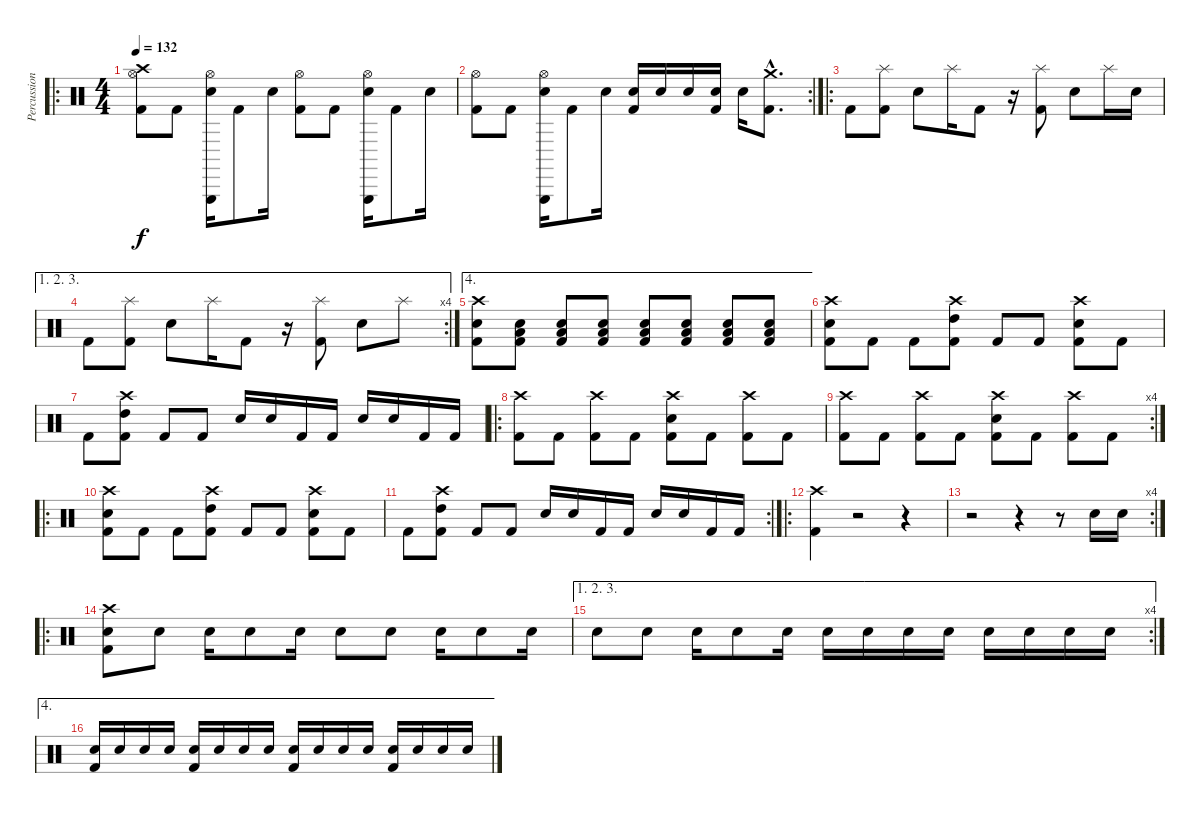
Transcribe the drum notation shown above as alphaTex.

\track ("Percussion" "Percussion") {instrument percussion}
\staff {score}
\articulation defaults
\ro
\ts (4 4)
\tempo 132
\clef neutral
\ks c
("Crash high (hit)" "Hi-Hat (open)" "Kick (hit) 2").8{dy f} "Kick (hit) 2".8 ("Triangle (hit)" "Electric Snare (hit)" "Hi-Hat (open)").16 "Kick (hit) 2".8 "Electric Snare (hit)".16 ("Hi-Hat (open)" "Kick (hit) 2").8 "Kick (hit) 2".8 ("Triangle (hit)" "Electric Snare (hit)" "Hi-Hat (open)").16 "Kick (hit) 2".8 "Electric Snare (hit)".16 |
\rc 2
("Hi-Hat (open)" "Kick (hit) 2").8 "Kick (hit) 2".8 ("Triangle (hit)" "Electric Snare (hit)" "Hi-Hat (open)").16 "Kick (hit) 2".8 "Electric Snare (hit)".16 ("Electric Snare (hit)" "Kick (hit) 2").16 "Electric Snare (hit)".16 "Electric Snare (hit)".16 ("Electric Snare (hit)" "Kick (hit) 2").16 "Electric Snare (hit)".16 ("Crash medium (hit)"{hac} "Kick (hit) 2"{hac}).8{d} |
\ro "Kick (hit) 2".8
("Splash (hit)" "Kick (hit) 2").8 "Electric Snare (hit)".8 "Splash (hit)".16 "Kick (hit) 2".8 r.16 ("Splash (hit)" "Kick (hit) 2").8 "Electric Snare (hit)".8 "Splash (hit)".16 "Electric Snare (hit)".16 |
\ae (1 2 3)
\rc 4 "Kick (hit) 2".8
("Splash (hit)" "Kick (hit) 2").8 "Electric Snare (hit)".8 "Splash (hit)".16 "Kick (hit) 2".8 r.16 ("Splash (hit)" "Kick (hit) 2").8 "Electric Snare (hit)".8 "Splash (hit)".8 |
\ae 4
("Crash high (hit)" "Electric Snare (hit)" "Kick (hit) 2").8 ("Electric Snare (hit)" "Low Floor Tom (hit)" "Kick (hit) 2").8 ("Electric Snare (hit)" "Low Floor Tom (hit)" "Kick (hit) 2").8 ("Electric Snare (hit)" "Low Floor Tom (hit)" "Kick (hit) 2").8 ("Electric Snare (hit)" "Low Floor Tom (hit)" "Kick (hit) 2").8 ("Electric Snare (hit)" "Low Floor Tom (hit)" "Kick (hit) 2").8 ("Electric Snare (hit)" "Low Floor Tom (hit)" "Kick (hit) 2").8 ("Electric Snare (hit)" "Low Floor Tom (hit)" "Kick (hit) 2").8 |
("Crash high (hit)" "Electric Snare (hit)" "Kick (hit) 2").8 "Kick (hit) 2".8 "Kick (hit) 2".8 ("Crash high (hit)" "High Tom (hit)" "Kick (hit) 2").8 "Kick (hit) 2".8 "Kick (hit) 2".8 ("Crash high (hit)" "Electric Snare (hit)" "Kick (hit) 2").8 "Kick (hit) 2".8 |
"Kick (hit) 2".8 ("Crash high (hit)" "High Tom (hit)" "Kick (hit) 2").8 "Kick (hit) 2".8 "Kick (hit) 2".8 "Electric Snare (hit)".16 "Electric Snare (hit)".16 "Kick (hit) 2".16 "Kick (hit) 2".16 "Electric Snare (hit)".16 "Electric Snare (hit)".16 "Kick (hit) 2".16 "Kick (hit) 2".16 |
\ro
("Crash high (hit)" "Kick (hit) 2").8 "Kick (hit) 2".8 ("Crash high (hit)" "Kick (hit) 2").8 "Kick (hit) 2".8 ("Crash high (hit)" "Electric Snare (hit)" "Kick (hit) 2").8 "Kick (hit) 2".8 ("Crash high (hit)" "Kick (hit) 2").8 "Kick (hit) 2".8 |
\rc 4
("Crash high (hit)" "Kick (hit) 2").8 "Kick (hit) 2".8 ("Crash high (hit)" "Kick (hit) 2").8 "Kick (hit) 2".8 ("Crash high (hit)" "Electric Snare (hit)" "Kick (hit) 2").8 "Kick (hit) 2".8 ("Crash high (hit)" "Kick (hit) 2").8 "Kick (hit) 2".8 |
\ro
("Crash high (hit)" "Electric Snare (hit)" "Kick (hit) 2").8 "Kick (hit) 2".8 "Kick (hit) 2".8 ("Crash high (hit)" "High Tom (hit)" "Kick (hit) 2").8 "Kick (hit) 2".8 "Kick (hit) 2".8 ("Crash high (hit)" "Electric Snare (hit)" "Kick (hit) 2").8 "Kick (hit) 2".8 |
\rc 2 "Kick (hit) 2".8
("Crash high (hit)" "High Tom (hit)" "Kick (hit) 2").8 "Kick (hit) 2".8 "Kick (hit) 2".8 "Electric Snare (hit)".16 "Electric Snare (hit)".16 "Kick (hit) 2".16 "Kick (hit) 2".16 "Electric Snare (hit)".16 "Electric Snare (hit)".16 "Kick (hit) 2".16 "Kick (hit) 2".16 |
\ro
("Crash high (hit)" "Kick (hit) 2").4 r.2 r.4 |
\rc 4
r.2 r.4 r.8 "Electric Snare (hit)".16 "Electric Snare (hit)".16 |
\ro
("Crash high (hit)" "Electric Snare (hit)" "Kick (hit) 2").8 "Electric Snare (hit)".8 "Electric Snare (hit)".16 "Electric Snare (hit)".8 "Electric Snare (hit)".16 "Electric Snare (hit)".8 "Electric Snare (hit)".8 "Electric Snare (hit)".16 "Electric Snare (hit)".8 "Electric Snare (hit)".16 |
\ae (1 2 3)
\rc 4 "Electric Snare (hit)".8 "Electric Snare (hit)".8 "Electric Snare (hit)".16 "Electric Snare (hit)".8 "Electric Snare (hit)".16 "Electric Snare (hit)".16 "Electric Snare (hit)".16 "Electric Snare (hit)".16 "Electric Snare (hit)".16 "Electric Snare (hit)".16 "Electric Snare (hit)".16 "Electric Snare (hit)".16 "Electric Snare (hit)".16
|
\ae 4
("Electric Snare (hit)" "Kick (hit) 2").16 "Electric Snare (hit)".16 "Electric Snare (hit)".16 "Electric Snare (hit)".16 ("Electric Snare (hit)" "Kick (hit) 2").16 "Electric Snare (hit)".16 "Electric Snare (hit)".16 "Electric Snare (hit)".16 ("Electric Snare (hit)" "Kick (hit) 2").16 "Electric Snare (hit)".16 "Electric Snare (hit)".16 "Electric Snare (hit)".16 ("Electric Snare (hit)" "Kick (hit) 2").16 "Electric Snare (hit)".16 "Electric Snare (hit)".16 "Electric Snare (hit)".16
